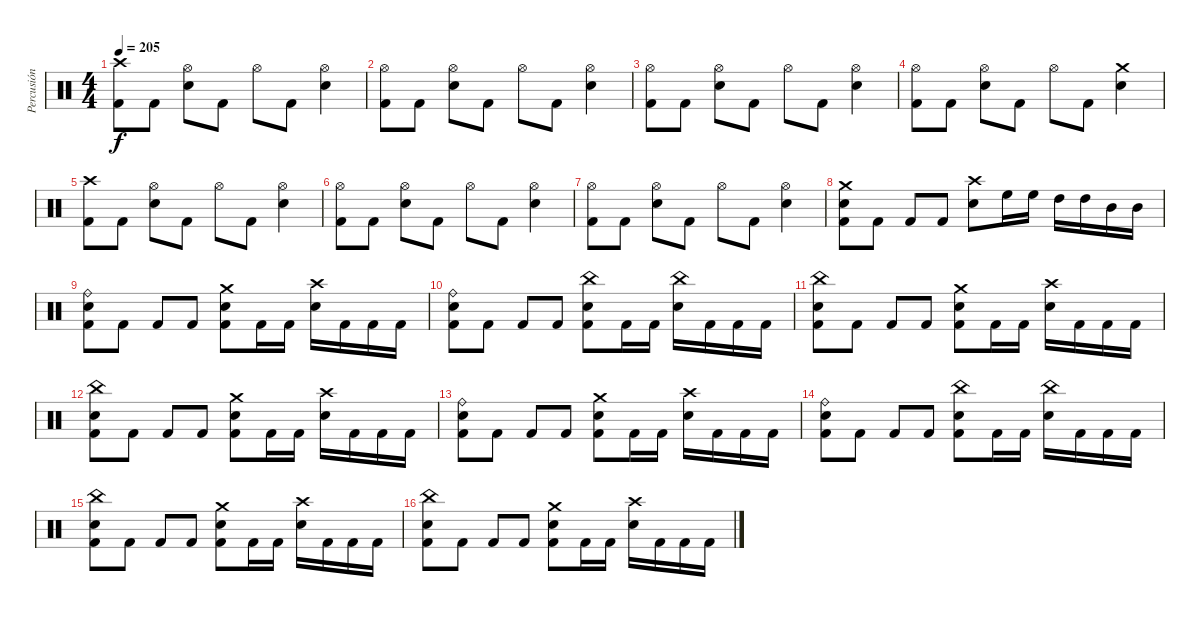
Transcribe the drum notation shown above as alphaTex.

\track ("Percusión" "Percusión") {instrument percussion}
\staff {score}
\articulation defaults
\ts (4 4)
\tempo 205
\clef neutral
\ks c
("Crash high (hit)" "Kick (hit) 2").8{dy f} "Kick (hit) 2".8 ("Hi-Hat (open)" "Snare (hit) 2").8 "Kick (hit) 2".8 "Hi-Hat (open)".8 "Kick (hit) 2".8 ("Snare (hit) 2" "Hi-Hat (open)").4 |
("Hi-Hat (open)" "Kick (hit) 2").8 "Kick (hit) 2".8 ("Hi-Hat (open)" "Snare (hit) 2").8 "Kick (hit) 2".8 "Hi-Hat (open)".8 "Kick (hit) 2".8 ("Snare (hit) 2" "Hi-Hat (open)").4 |
("Hi-Hat (open)" "Kick (hit) 2").8 "Kick (hit) 2".8 ("Hi-Hat (open)" "Snare (hit) 2").8 "Kick (hit) 2".8 "Hi-Hat (open)".8 "Kick (hit) 2".8 ("Snare (hit) 2" "Hi-Hat (open)").4 |
("Hi-Hat (open)" "Kick (hit) 2").8 "Kick (hit) 2".8 ("Hi-Hat (open)" "Snare (hit) 2").8 "Kick (hit) 2".8 "Hi-Hat (open)".8 "Kick (hit) 2".8 ("Snare (hit) 2" "Crash medium (hit)").4 |
("Crash high (hit)" "Kick (hit) 2").8 "Kick (hit) 2".8 ("Hi-Hat (open)" "Snare (hit) 2").8 "Kick (hit) 2".8 "Hi-Hat (open)".8 "Kick (hit) 2".8 ("Snare (hit) 2" "Hi-Hat (open)").4 |
("Hi-Hat (open)" "Kick (hit) 2").8 "Kick (hit) 2".8 ("Hi-Hat (open)" "Snare (hit) 2").8 "Kick (hit) 2".8 "Hi-Hat (open)".8 "Kick (hit) 2".8 ("Snare (hit) 2" "Hi-Hat (open)").4 |
("Hi-Hat (open)" "Kick (hit) 2").8 "Kick (hit) 2".8 ("Hi-Hat (open)" "Snare (hit) 2").8 "Kick (hit) 2".8 "Hi-Hat (open)".8 "Kick (hit) 2".8 ("Snare (hit) 2" "Hi-Hat (open)").4 |
("Crash medium (hit)" "Snare (hit) 2" "Kick (hit) 2").8 "Kick (hit) 2".8 "Kick (hit) 2".8 "Kick (hit) 2".8 ("Crash high (hit)" "Snare (hit) 2").8 "High Floor Tom (hit)".16 "High Floor Tom (hit)".16 "High Tom (hit)".16 "High Tom (hit)".16 "Mid Tom (hit)".16 "Mid Tom (hit)".16 |
("Snare (hit) 2" "Ride (bell)" "Kick (hit) 2").8 "Kick (hit) 2".8 "Kick (hit) 2".8 "Kick (hit) 2".8 ("Snare (hit) 2" "Crash medium (hit)" "Kick (hit) 2").8 "Kick (hit) 2".16 "Kick (hit) 2".16 ("Crash high (hit)" "Snare (hit) 2").16 "Kick (hit) 2".16 "Kick (hit) 2".16 "Kick (hit) 2".16 |
("Snare (hit) 2" "Ride (bell)" "Kick (hit) 2").8 "Kick (hit) 2".8 "Kick (hit) 2".8 "Kick (hit) 2".8 ("Snare (hit) 2" "China (hit)" "Kick (hit) 2").8 "Kick (hit) 2".16 "Kick (hit) 2".16 ("China (hit)" "Snare (hit) 2").16 "Kick (hit) 2".16 "Kick (hit) 2".16 "Kick (hit) 2".16 |
("Snare (hit) 2" "China (hit)" "Kick (hit) 2").8 "Kick (hit) 2".8 "Kick (hit) 2".8 "Kick (hit) 2".8 ("Snare (hit) 2" "Crash medium (hit)" "Kick (hit) 2").8 "Kick (hit) 2".16 "Kick (hit) 2".16 ("Crash high (hit)" "Snare (hit) 2").16 "Kick (hit) 2".16 "Kick (hit) 2".16 "Kick (hit) 2".16 |
("Snare (hit) 2" "China (hit)" "Kick (hit) 2").8 "Kick (hit) 2".8 "Kick (hit) 2".8 "Kick (hit) 2".8 ("Snare (hit) 2" "Crash medium (hit)" "Kick (hit) 2").8 "Kick (hit) 2".16 "Kick (hit) 2".16 ("Crash high (hit)" "Snare (hit) 2").16 "Kick (hit) 2".16 "Kick (hit) 2".16 "Kick (hit) 2".16 |
("Snare (hit) 2" "Ride (bell)" "Kick (hit) 2").8 "Kick (hit) 2".8 "Kick (hit) 2".8 "Kick (hit) 2".8 ("Snare (hit) 2" "Crash medium (hit)" "Kick (hit) 2").8 "Kick (hit) 2".16 "Kick (hit) 2".16 ("Crash high (hit)" "Snare (hit) 2").16 "Kick (hit) 2".16 "Kick (hit) 2".16 "Kick (hit) 2".16 |
("Snare (hit) 2" "Ride (bell)" "Kick (hit) 2").8 "Kick (hit) 2".8 "Kick (hit) 2".8 "Kick (hit) 2".8 ("Snare (hit) 2" "China (hit)" "Kick (hit) 2").8 "Kick (hit) 2".16 "Kick (hit) 2".16 ("China (hit)" "Snare (hit) 2").16 "Kick (hit) 2".16 "Kick (hit) 2".16 "Kick (hit) 2".16 |
("Snare (hit) 2" "China (hit)" "Kick (hit) 2").8 "Kick (hit) 2".8 "Kick (hit) 2".8 "Kick (hit) 2".8 ("Snare (hit) 2" "Crash medium (hit)" "Kick (hit) 2").8 "Kick (hit) 2".16 "Kick (hit) 2".16 ("Crash high (hit)" "Snare (hit) 2").16 "Kick (hit) 2".16 "Kick (hit) 2".16 "Kick (hit) 2".16 |
("Snare (hit) 2" "China (hit)" "Kick (hit) 2").8 "Kick (hit) 2".8 "Kick (hit) 2".8 "Kick (hit) 2".8 ("Snare (hit) 2" "Crash medium (hit)" "Kick (hit) 2").8 "Kick (hit) 2".16 "Kick (hit) 2".16 ("Crash high (hit)" "Snare (hit) 2").16 "Kick (hit) 2".16 "Kick (hit) 2".16 "Kick (hit) 2".16
